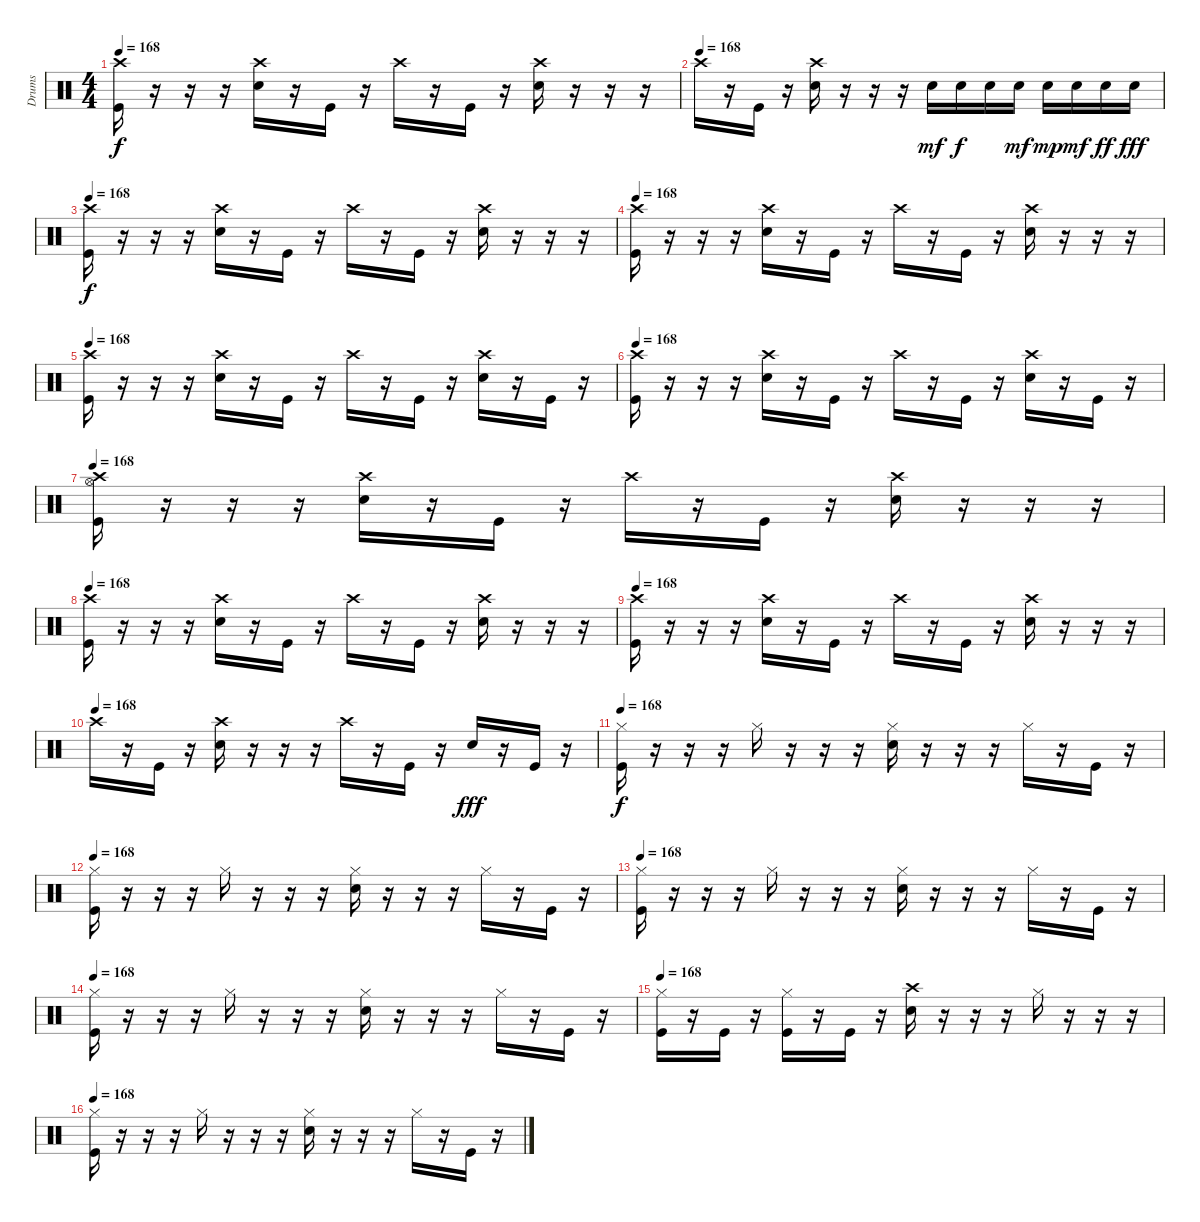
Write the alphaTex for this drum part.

\track ("Drums" "Drums") {instrument percussion}
\staff {score}
\articulation defaults
\ts (4 4)
\tempo 168
\clef neutral
\ks c
("Kick (hit)" "Crash high (hit)").16{dy f} r.16 r.16 r.16 ("Electric Snare (hit)" "Crash high (hit)").16 r.16 "Kick (hit)".16 r.16 "Crash high (hit)".16 r.16 "Kick (hit)".16 r.16 ("Electric Snare (hit)" "Crash high (hit)").16 r.16 r.16 r.16 |
\tempo (168)
"Crash high (hit)".16 r.16 "Kick (hit)".16 r.16 ("Electric Snare (hit)" "Crash high (hit)").16 r.16 r.16 r.16 "Electric Snare (hit)".16{dy mf} "Electric Snare (hit)".16{dy f} "Electric Snare (hit)".16 "Electric Snare (hit)".16{dy mf} "Electric Snare (hit)".16{dy mp} "Electric Snare (hit)".16{dy mf} "Electric Snare (hit)".16{dy ff} "Electric Snare (hit)".16{dy fff} |
\tempo 164
\tempo 168
("Kick (hit)" "Crash high (hit)").16{dy f} r.16 r.16 r.16 ("Electric Snare (hit)" "Crash high (hit)").16 r.16 "Kick (hit)".16 r.16 "Crash high (hit)".16 r.16 "Kick (hit)".16 r.16 ("Electric Snare (hit)" "Crash high (hit)").16 r.16 r.16 r.16 |
\tempo 168
("Kick (hit)" "Crash high (hit)").16 r.16 r.16 r.16 ("Electric Snare (hit)" "Crash high (hit)").16 r.16 "Kick (hit)".16 r.16 "Crash high (hit)".16 r.16 "Kick (hit)".16 r.16 ("Electric Snare (hit)" "Crash high (hit)").16 r.16 r.16 r.16 |
\tempo 168
("Kick (hit)" "Crash high (hit)").16 r.16 r.16 r.16 ("Electric Snare (hit)" "Crash high (hit)").16 r.16 "Kick (hit)".16 r.16 "Crash high (hit)".16 r.16 "Kick (hit)".16 r.16 ("Electric Snare (hit)" "Crash high (hit)").16 r.16 "Kick (hit)".16 r.16 |
\tempo 168
("Kick (hit)" "Crash high (hit)").16 r.16 r.16 r.16 ("Electric Snare (hit)" "Crash high (hit)").16 r.16 "Kick (hit)".16 r.16 "Crash high (hit)".16 r.16 "Kick (hit)".16 r.16 ("Electric Snare (hit)" "Crash high (hit)").16 r.16 "Kick (hit)".16 r.16 |
\tempo 164
\tempo 168
("Hi-Hat (open)" "Kick (hit)" "Crash high (hit)").16 r.16 r.16 r.16 ("Electric Snare (hit)" "Crash high (hit)").16 r.16 "Kick (hit)".16 r.16 "Crash high (hit)".16 r.16 "Kick (hit)".16 r.16 ("Electric Snare (hit)" "Crash high (hit)").16 r.16 r.16 r.16 |
\tempo 168
("Kick (hit)" "Crash high (hit)").16 r.16 r.16 r.16 ("Electric Snare (hit)" "Crash high (hit)").16 r.16 "Kick (hit)".16 r.16 "Crash high (hit)".16 r.16 "Kick (hit)".16 r.16 ("Electric Snare (hit)" "Crash high (hit)").16 r.16 r.16 r.16 |
\tempo 168
("Kick (hit)" "Crash high (hit)").16 r.16 r.16 r.16 ("Electric Snare (hit)" "Crash high (hit)").16 r.16 "Kick (hit)".16 r.16 "Crash high (hit)".16 r.16 "Kick (hit)".16 r.16 ("Electric Snare (hit)" "Crash high (hit)").16 r.16 r.16 r.16 |
\tempo (168)
"Crash high (hit)".16 r.16 "Kick (hit)".16 r.16 ("Electric Snare (hit)" "Crash high (hit)").16 r.16 r.16 r.16 "Crash high (hit)".16 r.16 "Kick (hit)".16 r.16 "Electric Snare (hit)".16{dy fff} r.16 "Kick (hit)".16 r.16 |
\tempo 168
("Kick (hit)" "Hi-Hat (closed)").16{dy f} r.16 r.16 r.16 "Hi-Hat (closed)".16 r.16 r.16 r.16 ("Electric Snare (hit)" "Hi-Hat (closed)").16 r.16 r.16 r.16 "Hi-Hat (closed)".16 r.16 "Kick (hit)".16 r.16 |
\tempo 168
("Kick (hit)" "Hi-Hat (closed)").16 r.16 r.16 r.16 "Hi-Hat (closed)".16 r.16 r.16 r.16 ("Electric Snare (hit)" "Hi-Hat (closed)").16 r.16 r.16 r.16 "Hi-Hat (closed)".16 r.16 "Kick (hit)".16 r.16 |
\tempo 168
("Kick (hit)" "Hi-Hat (closed)").16 r.16 r.16 r.16 "Hi-Hat (closed)".16 r.16 r.16 r.16 ("Electric Snare (hit)" "Hi-Hat (closed)").16 r.16 r.16 r.16 "Hi-Hat (closed)".16 r.16 "Kick (hit)".16 r.16 |
\tempo 168
("Kick (hit)" "Hi-Hat (closed)").16 r.16 r.16 r.16 "Hi-Hat (closed)".16 r.16 r.16 r.16 ("Electric Snare (hit)" "Hi-Hat (closed)").16 r.16 r.16 r.16 "Hi-Hat (closed)".16 r.16 "Kick (hit)".16 r.16 |
\tempo 168
("Kick (hit)" "Hi-Hat (closed)").16 r.16 "Kick (hit)".16 r.16 ("Kick (hit)" "Hi-Hat (closed)").16 r.16 "Kick (hit)".16 r.16 ("Electric Snare (hit)" "Crash high (hit)").16 r.16 r.16 r.16 "Hi-Hat (closed)".16 r.16 r.16 r.16 |
\tempo 168
("Kick (hit)" "Hi-Hat (closed)").16 r.16 r.16 r.16 "Hi-Hat (closed)".16 r.16 r.16 r.16 ("Electric Snare (hit)" "Hi-Hat (closed)").16 r.16 r.16 r.16 "Hi-Hat (closed)".16 r.16 "Kick (hit)".16 r.16
